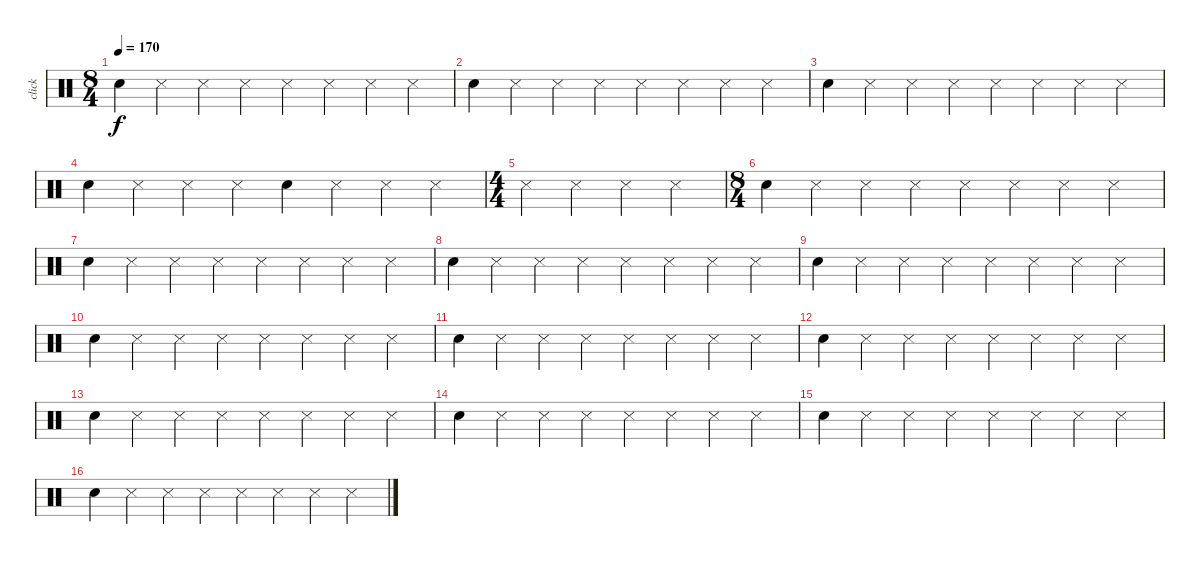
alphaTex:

\track ("click" "click") {mute instrument percussion}
\staff {score}
\articulation defaults
\ts (8 4)
\tempo 170
\clef neutral
\ks c "Metronome (bell)".4{dy f} "Metronome (hit)".4 "Metronome (hit)".4 "Metronome (hit)".4 "Metronome (hit)".4 "Metronome (hit)".4 "Metronome (hit)".4 "Metronome (hit)".4
|
"Metronome (bell)".4 "Metronome (hit)".4 "Metronome (hit)".4 "Metronome (hit)".4 "Metronome (hit)".4 "Metronome (hit)".4 "Metronome (hit)".4 "Metronome (hit)".4 |
"Metronome (bell)".4 "Metronome (hit)".4 "Metronome (hit)".4 "Metronome (hit)".4 "Metronome (hit)".4 "Metronome (hit)".4 "Metronome (hit)".4 "Metronome (hit)".4 |
"Metronome (bell)".4 "Metronome (hit)".4 "Metronome (hit)".4 "Metronome (hit)".4 "Metronome (bell)".4 "Metronome (hit)".4 "Metronome (hit)".4 "Metronome (hit)".4 |
\ts (4 4)
"Metronome (hit)".4 "Metronome (hit)".4 "Metronome (hit)".4 "Metronome (hit)".4 |
\ts (8 4)
"Metronome (bell)".4 "Metronome (hit)".4 "Metronome (hit)".4 "Metronome (hit)".4 "Metronome (hit)".4 "Metronome (hit)".4 "Metronome (hit)".4 "Metronome (hit)".4 |
"Metronome (bell)".4 "Metronome (hit)".4 "Metronome (hit)".4 "Metronome (hit)".4 "Metronome (hit)".4 "Metronome (hit)".4 "Metronome (hit)".4 "Metronome (hit)".4 |
"Metronome (bell)".4 "Metronome (hit)".4 "Metronome (hit)".4 "Metronome (hit)".4 "Metronome (hit)".4 "Metronome (hit)".4 "Metronome (hit)".4 "Metronome (hit)".4 |
"Metronome (bell)".4 "Metronome (hit)".4 "Metronome (hit)".4 "Metronome (hit)".4 "Metronome (hit)".4 "Metronome (hit)".4 "Metronome (hit)".4 "Metronome (hit)".4 |
"Metronome (bell)".4 "Metronome (hit)".4 "Metronome (hit)".4 "Metronome (hit)".4 "Metronome (hit)".4 "Metronome (hit)".4 "Metronome (hit)".4 "Metronome (hit)".4 |
"Metronome (bell)".4 "Metronome (hit)".4 "Metronome (hit)".4 "Metronome (hit)".4 "Metronome (hit)".4 "Metronome (hit)".4 "Metronome (hit)".4 "Metronome (hit)".4 |
"Metronome (bell)".4 "Metronome (hit)".4 "Metronome (hit)".4 "Metronome (hit)".4 "Metronome (hit)".4 "Metronome (hit)".4 "Metronome (hit)".4 "Metronome (hit)".4 |
"Metronome (bell)".4 "Metronome (hit)".4 "Metronome (hit)".4 "Metronome (hit)".4 "Metronome (hit)".4 "Metronome (hit)".4 "Metronome (hit)".4 "Metronome (hit)".4 |
"Metronome (bell)".4 "Metronome (hit)".4 "Metronome (hit)".4 "Metronome (hit)".4 "Metronome (hit)".4 "Metronome (hit)".4 "Metronome (hit)".4 "Metronome (hit)".4 |
"Metronome (bell)".4 "Metronome (hit)".4 "Metronome (hit)".4 "Metronome (hit)".4 "Metronome (hit)".4 "Metronome (hit)".4 "Metronome (hit)".4 "Metronome (hit)".4 |
"Metronome (bell)".4 "Metronome (hit)".4 "Metronome (hit)".4 "Metronome (hit)".4 "Metronome (hit)".4 "Metronome (hit)".4 "Metronome (hit)".4 "Metronome (hit)".4
